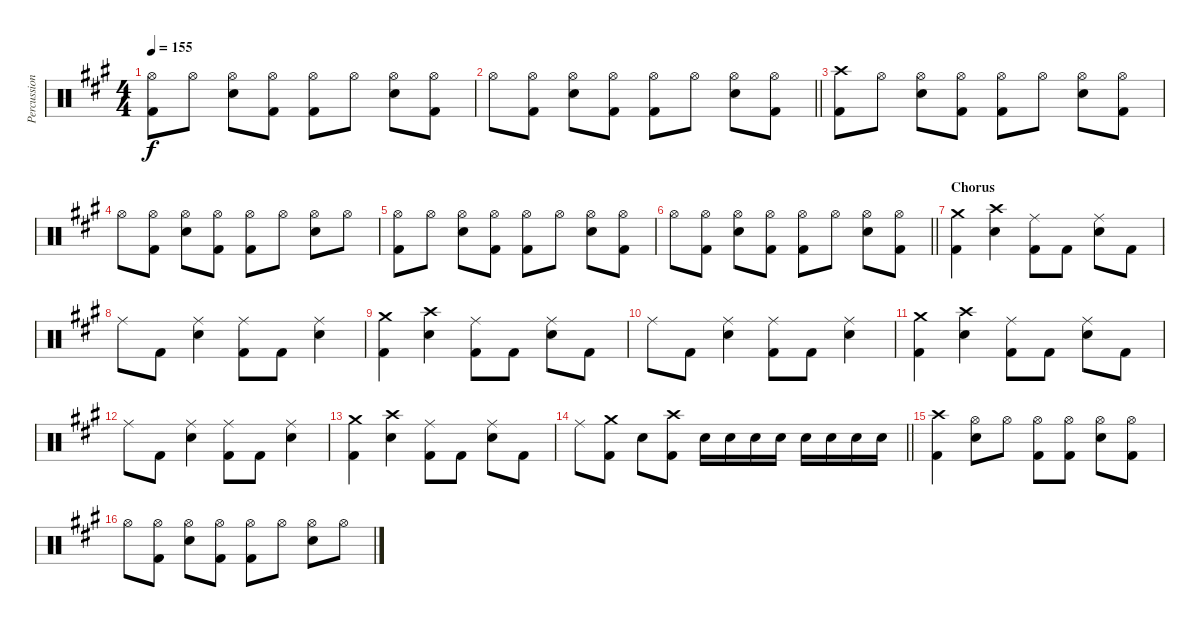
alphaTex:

\track ("Percussion" "Percussion") {instrument percussion}
\staff {score}
\articulation defaults
\ts (4 4)
\tempo 155
\clef neutral
\ks a
("Hi-Hat (open)" "Kick (hit) 2").8{dy f} "Hi-Hat (open)".8 ("Hi-Hat (open)" "Electric Snare (hit)").8 ("Hi-Hat (open)" "Kick (hit) 2").8 ("Hi-Hat (open)" "Kick (hit) 2").8 "Hi-Hat (open)".8 ("Hi-Hat (open)" "Electric Snare (hit)").8 ("Hi-Hat (open)" "Kick (hit) 2").8 |
\barLineRight lightlight "Hi-Hat (open)".8
("Hi-Hat (open)" "Kick (hit) 2").8 ("Hi-Hat (open)" "Electric Snare (hit)").8 ("Hi-Hat (open)" "Kick (hit) 2").8 ("Hi-Hat (open)" "Kick (hit) 2").8 "Hi-Hat (open)".8 ("Hi-Hat (open)" "Electric Snare (hit)").8 ("Hi-Hat (open)" "Kick (hit) 2").8 |
("Crash high (hit)" "Kick (hit) 2").8 "Hi-Hat (open)".8 ("Hi-Hat (open)" "Electric Snare (hit)").8 ("Hi-Hat (open)" "Kick (hit) 2").8 ("Hi-Hat (open)" "Kick (hit) 2").8 "Hi-Hat (open)".8 ("Hi-Hat (open)" "Electric Snare (hit)").8 ("Hi-Hat (open)" "Kick (hit) 2").8 |
"Hi-Hat (open)".8 ("Hi-Hat (open)" "Kick (hit) 2").8 ("Hi-Hat (open)" "Electric Snare (hit)").8 ("Hi-Hat (open)" "Kick (hit) 2").8 ("Hi-Hat (open)" "Kick (hit) 2").8 "Hi-Hat (open)".8 ("Hi-Hat (open)" "Electric Snare (hit)").8 "Hi-Hat (open)".8 |
("Hi-Hat (open)" "Kick (hit) 2").8 "Hi-Hat (open)".8 ("Hi-Hat (open)" "Electric Snare (hit)").8 ("Hi-Hat (open)" "Kick (hit) 2").8 ("Hi-Hat (open)" "Kick (hit) 2").8 "Hi-Hat (open)".8 ("Hi-Hat (open)" "Electric Snare (hit)").8 ("Hi-Hat (open)" "Kick (hit) 2").8 |
\barLineRight lightlight "Hi-Hat (open)".8
("Hi-Hat (open)" "Kick (hit) 2").8 ("Hi-Hat (open)" "Electric Snare (hit)").8 ("Hi-Hat (open)" "Kick (hit) 2").8 ("Hi-Hat (open)" "Kick (hit) 2").8 "Hi-Hat (open)".8 ("Hi-Hat (open)" "Electric Snare (hit)").8 ("Hi-Hat (open)" "Kick (hit) 2").8 |
\section ("" "Chorus")
("Crash medium (hit)" "Kick (hit) 2").4 ("Crash high (hit)" "Electric Snare (hit)").4 ("Ride (middle)" "Kick (hit) 2").8 "Kick (hit) 2".8 ("Ride (middle)" "Electric Snare (hit)").8 "Kick (hit) 2".8 |
"Ride (middle)".8 "Kick (hit) 2".8 ("Ride (middle)" "Electric Snare (hit)").4 ("Ride (middle)" "Kick (hit) 2").8 "Kick (hit) 2".8 ("Ride (middle)" "Electric Snare (hit)").4 |
("Crash medium (hit)" "Kick (hit) 2").4 ("Crash high (hit)" "Electric Snare (hit)").4 ("Ride (middle)" "Kick (hit) 2").8 "Kick (hit) 2".8 ("Ride (middle)" "Electric Snare (hit)").8 "Kick (hit) 2".8 |
"Ride (middle)".8 "Kick (hit) 2".8 ("Ride (middle)" "Electric Snare (hit)").4 ("Ride (middle)" "Kick (hit) 2").8 "Kick (hit) 2".8 ("Ride (middle)" "Electric Snare (hit)").4 |
("Crash medium (hit)" "Kick (hit) 2").4 ("Crash high (hit)" "Electric Snare (hit)").4 ("Ride (middle)" "Kick (hit) 2").8 "Kick (hit) 2".8 ("Ride (middle)" "Electric Snare (hit)").8 "Kick (hit) 2".8 |
"Ride (middle)".8 "Kick (hit) 2".8 ("Ride (middle)" "Electric Snare (hit)").4 ("Ride (middle)" "Kick (hit) 2").8 "Kick (hit) 2".8 ("Ride (middle)" "Electric Snare (hit)").4 |
("Crash medium (hit)" "Kick (hit) 2").4 ("Crash high (hit)" "Electric Snare (hit)").4 ("Ride (middle)" "Kick (hit) 2").8 "Kick (hit) 2".8 ("Ride (middle)" "Electric Snare (hit)").8 "Kick (hit) 2".8 |
\barLineRight lightlight "Ride (middle)".8
("Crash medium (hit)" "Kick (hit) 2").8 "Electric Snare (hit)".8 ("Crash high (hit)" "Kick (hit) 2").8 "Electric Snare (hit)".16 "Electric Snare (hit)".16 "Electric Snare (hit)".16 "Electric Snare (hit)".16 "Electric Snare (hit)".16 "Electric Snare (hit)".16 "Electric Snare (hit)".16 "Electric Snare (hit)".16 |
("Crash high (hit)" "Kick (hit) 2").4 ("Hi-Hat (open)" "Electric Snare (hit)").8 "Hi-Hat (open)".8 ("Hi-Hat (open)" "Kick (hit) 2").8 ("Hi-Hat (open)" "Kick (hit) 2").8 ("Hi-Hat (open)" "Electric Snare (hit)").8 ("Hi-Hat (open)" "Kick (hit) 2").8 |
"Hi-Hat (open)".8 ("Hi-Hat (open)" "Kick (hit) 2").8 ("Hi-Hat (open)" "Electric Snare (hit)").8 ("Hi-Hat (open)" "Kick (hit) 2").8 ("Hi-Hat (open)" "Kick (hit) 2").8 "Hi-Hat (open)".8 ("Hi-Hat (open)" "Electric Snare (hit)").8 "Hi-Hat (open)".8
